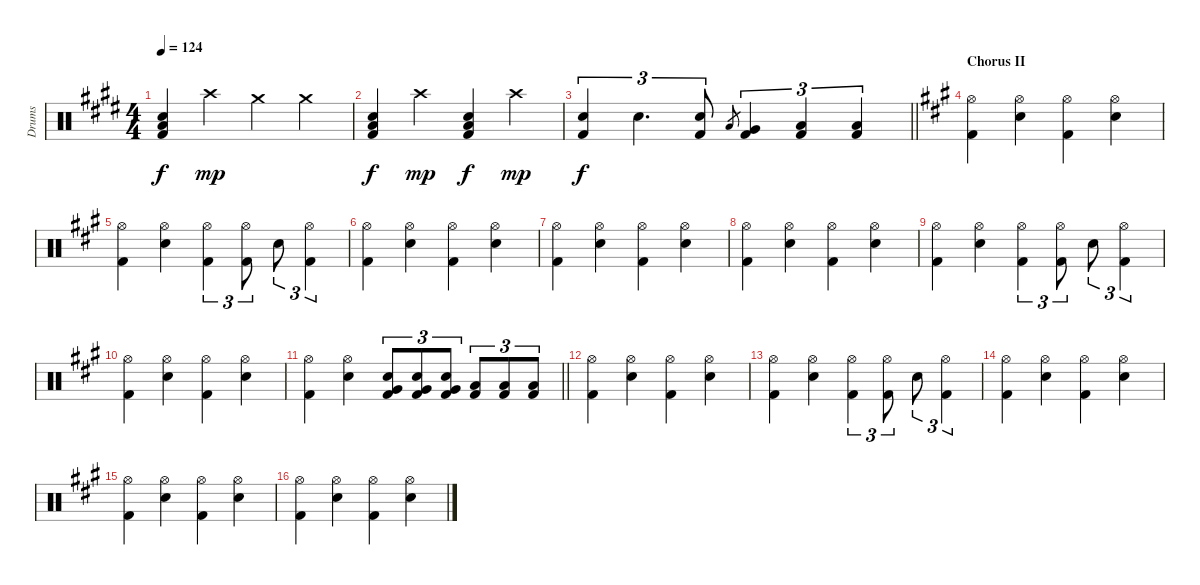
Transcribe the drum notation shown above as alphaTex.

\track ("Drums" "Drums") {instrument percussion}
\staff {score}
\articulation defaults
\ts (4 4)
\tempo 124
\clef neutral
\ks e
("Snare (hit) 2" "Low Floor Tom (hit)" "Kick (hit) 2").4{dy f} "Crash high (hit)".4{dy mp} "Crash medium (hit)".4 "Crash medium (hit)".4 |
("Snare (hit) 2" "Low Floor Tom (hit)" "Kick (hit) 2").4{dy f} "Crash high (hit)".4{dy mp} ("Snare (hit) 2" "Low Floor Tom (hit)" "Kick (hit) 2").4{dy f} "Crash high (hit)".4{dy mp} |
\barLineRight lightlight
("Snare (hit) 2" "Kick (hit) 2").4{tu (3 2) dy f} "Electric Snare (hit)".4{d tu (3 2)} ("Snare (hit) 2" "Kick (hit) 2").8{tu (3 2)} "Low Floor Tom (hit)".8{gr} ("Very Low Tom (hit)" "Kick (hit) 2").4{tu (3 2)} ("Low Floor Tom (hit)" "Kick (hit) 2").4{tu (3 2)} ("Low Floor Tom (hit)" "Kick (hit) 2").4{tu (3 2)} |
\section ("" "Chorus II")
\ks a
("Hi-Hat (open)" "Kick (hit) 2").4 ("Hi-Hat (open)" "Electric Snare (hit)").4 ("Hi-Hat (open)" "Kick (hit) 2").4 ("Hi-Hat (open)" "Electric Snare (hit)").4 |
("Hi-Hat (open)" "Kick (hit) 2").4 ("Hi-Hat (open)" "Electric Snare (hit)").4 ("Hi-Hat (open)" "Kick (hit) 2").4{tu (3 2)} ("Hi-Hat (open)" "Kick (hit) 2").8{tu (3 2)} "Electric Snare (hit)".8{tu (3 2)} ("Hi-Hat (open)" "Kick (hit) 2").4{tu (3 2)} |
("Hi-Hat (open)" "Kick (hit) 2").4 ("Hi-Hat (open)" "Electric Snare (hit)").4 ("Hi-Hat (open)" "Kick (hit) 2").4 ("Hi-Hat (open)" "Electric Snare (hit)").4 |
("Hi-Hat (open)" "Kick (hit) 2").4 ("Hi-Hat (open)" "Electric Snare (hit)").4 ("Hi-Hat (open)" "Kick (hit) 2").4 ("Hi-Hat (open)" "Electric Snare (hit)").4 |
("Hi-Hat (open)" "Kick (hit) 2").4 ("Hi-Hat (open)" "Electric Snare (hit)").4 ("Hi-Hat (open)" "Kick (hit) 2").4 ("Hi-Hat (open)" "Electric Snare (hit)").4 |
("Hi-Hat (open)" "Kick (hit) 2").4 ("Hi-Hat (open)" "Electric Snare (hit)").4 ("Hi-Hat (open)" "Kick (hit) 2").4{tu (3 2)} ("Hi-Hat (open)" "Kick (hit) 2").8{tu (3 2)} "Electric Snare (hit)".8{tu (3 2)} ("Hi-Hat (open)" "Kick (hit) 2").4{tu (3 2)} |
("Hi-Hat (open)" "Kick (hit) 2").4 ("Hi-Hat (open)" "Electric Snare (hit)").4 ("Hi-Hat (open)" "Kick (hit) 2").4 ("Hi-Hat (open)" "Electric Snare (hit)").4 |
\barLineRight lightlight
("Hi-Hat (open)" "Kick (hit) 2").4 ("Hi-Hat (open)" "Electric Snare (hit)").4 ("Electric Snare (hit)" "Very Low Tom (hit)" "Kick (hit) 2").8{tu (3 2)} ("Electric Snare (hit)" "Very Low Tom (hit)" "Kick (hit) 2").8{tu (3 2)} ("Electric Snare (hit)" "Very Low Tom (hit)" "Kick (hit) 2").8{tu (3 2)} ("Low Floor Tom (hit)" "Kick (hit) 2").8{tu (3 2)} ("Low Floor Tom (hit)" "Kick (hit) 2").8{tu (3 2)} ("Low Floor Tom (hit)" "Kick (hit) 2").8{tu (3 2)} |
("Hi-Hat (open)" "Kick (hit) 2").4 ("Hi-Hat (open)" "Electric Snare (hit)").4 ("Hi-Hat (open)" "Kick (hit) 2").4 ("Hi-Hat (open)" "Electric Snare (hit)").4 |
("Hi-Hat (open)" "Kick (hit) 2").4 ("Hi-Hat (open)" "Electric Snare (hit)").4 ("Hi-Hat (open)" "Kick (hit) 2").4{tu (3 2)} ("Hi-Hat (open)" "Kick (hit) 2").8{tu (3 2)} "Electric Snare (hit)".8{tu (3 2)} ("Hi-Hat (open)" "Kick (hit) 2").4{tu (3 2)} |
("Hi-Hat (open)" "Kick (hit) 2").4 ("Hi-Hat (open)" "Electric Snare (hit)").4 ("Hi-Hat (open)" "Kick (hit) 2").4 ("Hi-Hat (open)" "Electric Snare (hit)").4 |
("Hi-Hat (open)" "Kick (hit) 2").4 ("Hi-Hat (open)" "Electric Snare (hit)").4 ("Hi-Hat (open)" "Kick (hit) 2").4 ("Hi-Hat (open)" "Electric Snare (hit)").4 |
("Hi-Hat (open)" "Kick (hit) 2").4 ("Hi-Hat (open)" "Electric Snare (hit)").4 ("Hi-Hat (open)" "Kick (hit) 2").4 ("Hi-Hat (open)" "Electric Snare (hit)").4
